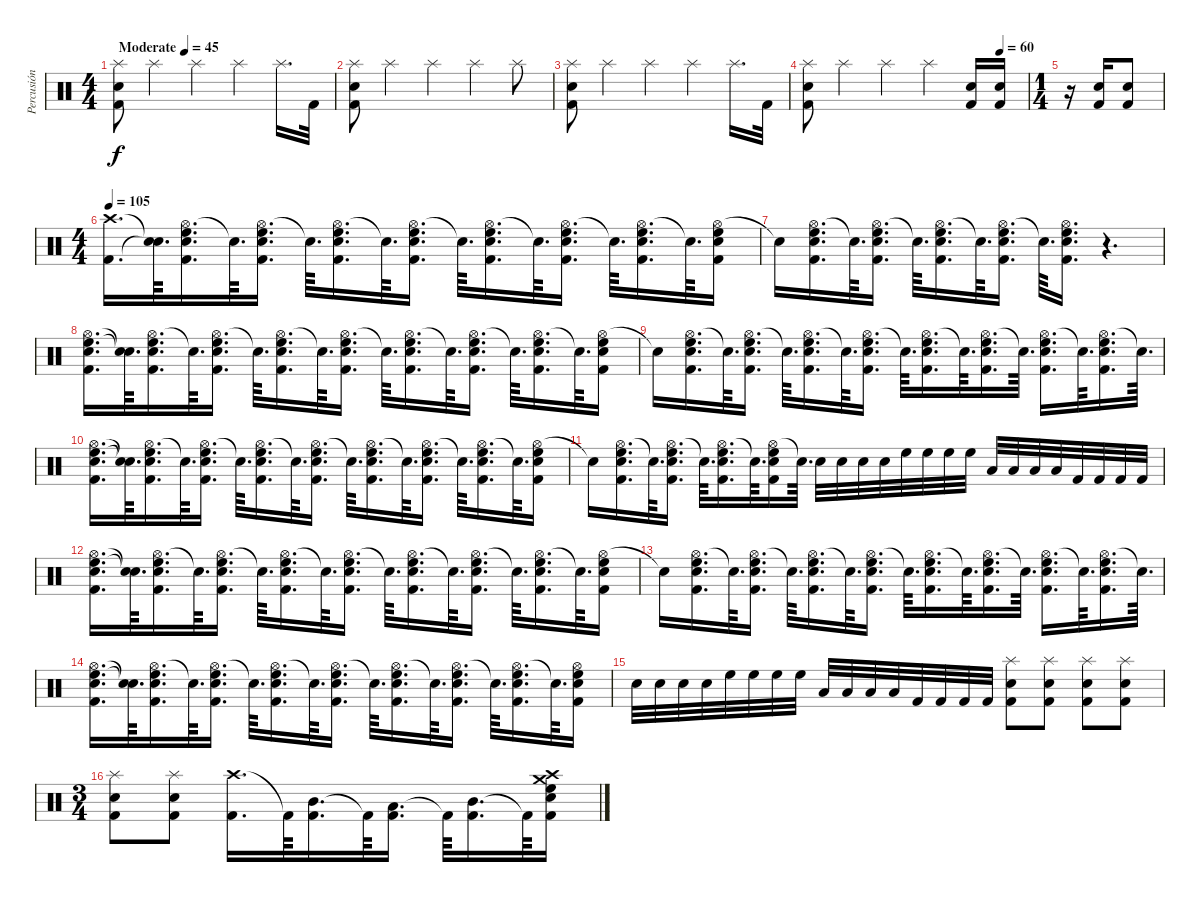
\track ("Percusión" "Percusión") {instrument percussion}
\staff {score}
\articulation defaults
\ts (4 4)
\tempo (45 "Moderate")
\clef neutral
\ks c
("Splash (hit)" "Snare (hit) 2" "Kick (hit) 2").8{dy f} "Splash (hit)".4 "Splash (hit)".4 "Splash (hit)".4 "Splash (hit)".16{d} "Kick (hit) 2".32 |
("Splash (hit)" "Snare (hit) 2" "Kick (hit) 2").8 "Splash (hit)".4 "Splash (hit)".4 "Splash (hit)".4 "Splash (hit)".8 |
("Splash (hit)" "Snare (hit) 2" "Kick (hit) 2").8 "Splash (hit)".4 "Splash (hit)".4 "Splash (hit)".4 "Splash (hit)".16{d} "Kick (hit) 2".32 |
\tempo (65 0.875)
\tempo (60 0.875)
("Splash (hit)" "Snare (hit) 2" "Kick (hit) 2").8 "Splash (hit)".4 "Splash (hit)".4 "Splash (hit)".4 ("Snare (hit) 2" "Kick (hit) 2").16 ("Snare (hit) 2" "Kick (hit) 2").16 |
\ts (1 4)
r.16 ("Snare (hit) 2" "Kick (hit) 2").16 ("Snare (hit) 2" "Kick (hit) 2").8 |
\ts (4 4)
\tempo 105
("Crash high (hit)" "Kick (hit) 2").16{d} ("Snare (hit)"{t} "Snare (hit)"{t}).64{d} ("Hi-Hat (open)" "High Floor Tom (hit)" "Snare (hit) 2" "Kick (hit) 2").16{d} "Snare (hit)"{t}.64{d} ("Hi-Hat (open)" "High Floor Tom (hit)" "Snare (hit) 2" "Kick (hit) 2").16{d} "Snare (hit)"{t}.64{d} ("Hi-Hat (open)" "High Floor Tom (hit)" "Snare (hit) 2" "Kick (hit) 2").16{d} "Snare (hit)"{t}.64{d} ("Hi-Hat (open)" "High Floor Tom (hit)" "Snare (hit) 2" "Kick (hit) 2").16{d} "Snare (hit)"{t}.64{d} ("Hi-Hat (open)" "High Floor Tom (hit)" "Snare (hit) 2" "Kick (hit) 2").16{d} "Snare (hit)"{t}.64{d} ("Hi-Hat (open)" "High Floor Tom (hit)" "Snare (hit) 2" "Kick (hit) 2").16{d} "Snare (hit)"{t}.64{d} ("Hi-Hat (open)" "High Floor Tom (hit)" "Snare (hit) 2" "Kick (hit) 2").16{d} "Snare (hit)"{t}.64{d} ("Hi-Hat (open)" "High Floor Tom (hit)" "Snare (hit) 2" "Kick (hit) 2").16 |
"Snare (hit)"{t}.16 ("Hi-Hat (open)" "High Floor Tom (hit)" "Snare (hit) 2" "Kick (hit) 2").16{d} "Snare (hit)"{t}.64{d} ("Hi-Hat (open)" "High Floor Tom (hit)" "Snare (hit) 2" "Kick (hit) 2").16{d} "Snare (hit)"{t}.64{d} ("Hi-Hat (open)" "High Floor Tom (hit)" "Snare (hit) 2" "Kick (hit) 2").16{d} "Snare (hit)"{t}.64{d} ("Hi-Hat (open)" "High Floor Tom (hit)" "Snare (hit) 2" "Kick (hit) 2").16{d} "Snare (hit)"{t}.64{d} ("Hi-Hat (open)" "High Floor Tom (hit)" "Snare (hit) 2" "Kick (hit) 2").16{d} r.4{d} |
("Hi-Hat (open)" "High Floor Tom (hit)" "Snare (hit) 2" "Kick (hit) 2").16{d} ("Snare (hit)"{t} "Snare (hit)"{t}).64{d} ("Hi-Hat (open)" "High Floor Tom (hit)" "Snare (hit) 2" "Kick (hit) 2").16{d} "Snare (hit)"{t}.64{d} ("Hi-Hat (open)" "High Floor Tom (hit)" "Snare (hit) 2" "Kick (hit) 2").16{d} "Snare (hit)"{t}.64{d} ("Hi-Hat (open)" "High Floor Tom (hit)" "Snare (hit) 2" "Kick (hit) 2").16{d} "Snare (hit)"{t}.64{d} ("Hi-Hat (open)" "High Floor Tom (hit)" "Snare (hit) 2" "Kick (hit) 2").16{d} "Snare (hit)"{t}.64{d} ("Hi-Hat (open)" "High Floor Tom (hit)" "Snare (hit) 2" "Kick (hit) 2").16{d} "Snare (hit)"{t}.64{d} ("Hi-Hat (open)" "High Floor Tom (hit)" "Snare (hit) 2" "Kick (hit) 2").16{d} "Snare (hit)"{t}.64{d} ("Hi-Hat (open)" "High Floor Tom (hit)" "Snare (hit) 2" "Kick (hit) 2").16{d} "Snare (hit)"{t}.64{d} ("Hi-Hat (open)" "High Floor Tom (hit)" "Snare (hit) 2" "Kick (hit) 2").16 |
"Snare (hit)"{t}.16 ("Hi-Hat (open)" "High Floor Tom (hit)" "Snare (hit) 2" "Kick (hit) 2").16{d} "Snare (hit)"{t}.64{d} ("Hi-Hat (open)" "High Floor Tom (hit)" "Snare (hit) 2" "Kick (hit) 2").16{d} "Snare (hit)"{t}.64{d} ("Hi-Hat (open)" "High Floor Tom (hit)" "Snare (hit) 2" "Kick (hit) 2").16{d} "Snare (hit)"{t}.64{d} ("Hi-Hat (open)" "High Floor Tom (hit)" "Snare (hit) 2" "Kick (hit) 2").16{d} "Snare (hit)"{t}.64{d} ("Hi-Hat (open)" "High Floor Tom (hit)" "Snare (hit) 2" "Kick (hit) 2").16{d} "Snare (hit)"{t}.64{d} ("Hi-Hat (open)" "High Floor Tom (hit)" "Snare (hit) 2" "Kick (hit) 2").16{d} "Snare (hit)"{t}.64{d} ("Hi-Hat (open)" "High Floor Tom (hit)" "Snare (hit) 2" "Kick (hit) 2").16{d} "Snare (hit)"{t}.64{d} ("Hi-Hat (open)" "High Floor Tom (hit)" "Snare (hit) 2" "Kick (hit) 2").16{d} "Snare (hit)"{t}.64{d} |
("Hi-Hat (open)" "High Floor Tom (hit)" "Snare (hit) 2" "Kick (hit) 2").16{d} ("Snare (hit)"{t} "Snare (hit)"{t}).64{d} ("Hi-Hat (open)" "High Floor Tom (hit)" "Snare (hit) 2" "Kick (hit) 2").16{d} "Snare (hit)"{t}.64{d} ("Hi-Hat (open)" "High Floor Tom (hit)" "Snare (hit) 2" "Kick (hit) 2").16{d} "Snare (hit)"{t}.64{d} ("Hi-Hat (open)" "High Floor Tom (hit)" "Snare (hit) 2" "Kick (hit) 2").16{d} "Snare (hit)"{t}.64{d} ("Hi-Hat (open)" "High Floor Tom (hit)" "Snare (hit) 2" "Kick (hit) 2").16{d} "Snare (hit)"{t}.64{d} ("Hi-Hat (open)" "High Floor Tom (hit)" "Snare (hit) 2" "Kick (hit) 2").16{d} "Snare (hit)"{t}.64{d} ("Hi-Hat (open)" "High Floor Tom (hit)" "Snare (hit) 2" "Kick (hit) 2").16{d} "Snare (hit)"{t}.64{d} ("Hi-Hat (open)" "High Floor Tom (hit)" "Snare (hit) 2" "Kick (hit) 2").16{d} "Snare (hit)"{t}.64{d} ("Hi-Hat (open)" "High Floor Tom (hit)" "Snare (hit) 2" "Kick (hit) 2").16 |
"Snare (hit)"{t}.16 ("Hi-Hat (open)" "High Floor Tom (hit)" "Snare (hit) 2" "Kick (hit) 2").16{d} "Snare (hit)"{t}.64{d} ("Hi-Hat (open)" "High Floor Tom (hit)" "Snare (hit) 2" "Kick (hit) 2").16{d} "Snare (hit)"{t}.64{d} ("Hi-Hat (open)" "High Floor Tom (hit)" "Snare (hit) 2" "Kick (hit) 2").16{d} "Snare (hit)"{t}.64{d} ("Hi-Hat (open)" "High Floor Tom (hit)" "Snare (hit) 2" "Kick (hit) 2").16 "Snare (hit)"{t}.64{d} "Snare (hit) 2".32 "Snare (hit) 2".32 "Snare (hit) 2".32 "Snare (hit) 2".32 "High Floor Tom (hit)".32 "High Floor Tom (hit)".32 "High Floor Tom (hit)".32 "High Floor Tom (hit)".32 "Low Tom (hit)".32 "Low Tom (hit)".32 "Low Tom (hit)".32 "Low Tom (hit)".32 "Kick (hit) 2".32 "Kick (hit) 2".32 "Kick (hit) 2".32 "Kick (hit) 2".32 |
("Hi-Hat (open)" "High Floor Tom (hit)" "Snare (hit) 2" "Kick (hit) 2").16{d} ("Snare (hit)"{t} "Snare (hit)"{t}).64{d} ("Hi-Hat (open)" "High Floor Tom (hit)" "Snare (hit) 2" "Kick (hit) 2").16{d} "Snare (hit)"{t}.64{d} ("Hi-Hat (open)" "High Floor Tom (hit)" "Snare (hit) 2" "Kick (hit) 2").16{d} "Snare (hit)"{t}.64{d} ("Hi-Hat (open)" "High Floor Tom (hit)" "Snare (hit) 2" "Kick (hit) 2").16{d} "Snare (hit)"{t}.64{d} ("Hi-Hat (open)" "High Floor Tom (hit)" "Snare (hit) 2" "Kick (hit) 2").16{d} "Snare (hit)"{t}.64{d} ("Hi-Hat (open)" "High Floor Tom (hit)" "Snare (hit) 2" "Kick (hit) 2").16{d} "Snare (hit)"{t}.64{d} ("Hi-Hat (open)" "High Floor Tom (hit)" "Snare (hit) 2" "Kick (hit) 2").16{d} "Snare (hit)"{t}.64{d} ("Hi-Hat (open)" "High Floor Tom (hit)" "Snare (hit) 2" "Kick (hit) 2").16{d} "Snare (hit)"{t}.64{d} ("Hi-Hat (open)" "High Floor Tom (hit)" "Snare (hit) 2" "Kick (hit) 2").16 |
"Snare (hit)"{t}.16 ("Hi-Hat (open)" "High Floor Tom (hit)" "Snare (hit) 2" "Kick (hit) 2").16{d} "Snare (hit)"{t}.64{d} ("Hi-Hat (open)" "High Floor Tom (hit)" "Snare (hit) 2" "Kick (hit) 2").16{d} "Snare (hit)"{t}.64{d} ("Hi-Hat (open)" "High Floor Tom (hit)" "Snare (hit) 2" "Kick (hit) 2").16{d} "Snare (hit)"{t}.64{d} ("Hi-Hat (open)" "High Floor Tom (hit)" "Snare (hit) 2" "Kick (hit) 2").16{d} "Snare (hit)"{t}.64{d} ("Hi-Hat (open)" "High Floor Tom (hit)" "Snare (hit) 2" "Kick (hit) 2").16{d} "Snare (hit)"{t}.64{d} ("Hi-Hat (open)" "High Floor Tom (hit)" "Snare (hit) 2" "Kick (hit) 2").16{d} "Snare (hit)"{t}.64{d} ("Hi-Hat (open)" "High Floor Tom (hit)" "Snare (hit) 2" "Kick (hit) 2").16{d} "Snare (hit)"{t}.64{d} ("Hi-Hat (open)" "High Floor Tom (hit)" "Snare (hit) 2" "Kick (hit) 2").16{d} "Snare (hit)"{t}.64{d} |
("Hi-Hat (open)" "High Floor Tom (hit)" "Snare (hit) 2" "Kick (hit) 2").16{d} ("Snare (hit)"{t} "Snare (hit)"{t}).64{d} ("Hi-Hat (open)" "High Floor Tom (hit)" "Snare (hit) 2" "Kick (hit) 2").16{d} "Snare (hit)"{t}.64{d} ("Hi-Hat (open)" "High Floor Tom (hit)" "Snare (hit) 2" "Kick (hit) 2").16{d} "Snare (hit)"{t}.64{d} ("Hi-Hat (open)" "High Floor Tom (hit)" "Snare (hit) 2" "Kick (hit) 2").16{d} "Snare (hit)"{t}.64{d} ("Hi-Hat (open)" "High Floor Tom (hit)" "Snare (hit) 2" "Kick (hit) 2").16{d} "Snare (hit)"{t}.64{d} ("Hi-Hat (open)" "High Floor Tom (hit)" "Snare (hit) 2" "Kick (hit) 2").16{d} "Snare (hit)"{t}.64{d} ("Hi-Hat (open)" "High Floor Tom (hit)" "Snare (hit) 2" "Kick (hit) 2").16{d} "Snare (hit)"{t}.64{d} ("Hi-Hat (open)" "High Floor Tom (hit)" "Snare (hit) 2" "Kick (hit) 2").16{d} "Snare (hit)"{t}.64{d} ("Hi-Hat (open)" "High Floor Tom (hit)" "Snare (hit) 2" "Kick (hit) 2").16 |
"Snare (hit) 2".32 "Snare (hit) 2".32 "Snare (hit) 2".32 "Snare (hit) 2".32 "High Floor Tom (hit)".32 "High Floor Tom (hit)".32 "High Floor Tom (hit)".32 "High Floor Tom (hit)".32 "Low Tom (hit)".32 "Low Tom (hit)".32 "Low Tom (hit)".32 "Low Tom (hit)".32 "Kick (hit) 2".32 "Kick (hit) 2".32 "Kick (hit) 2".32 "Kick (hit) 2".32 ("Splash (hit)" "Snare (hit) 2" "Kick (hit) 2").8 ("Splash (hit)" "Snare (hit) 2" "Kick (hit) 2").8 ("Splash (hit)" "Snare (hit) 2" "Kick (hit) 2").8 ("Splash (hit)" "Snare (hit) 2" "Kick (hit) 2").8 |
\ts (3 4)
("Splash (hit)" "Snare (hit) 2" "Kick (hit) 2").8 ("Splash (hit)" "Snare (hit) 2" "Kick (hit) 2").8 ("Crash high (hit)" "Kick (hit) 2").16{d} "Kick (hit) 2"{t}.64 ("Mid Tom (hit)" "Kick (hit) 2").16{d} "Kick (hit) 2"{t}.64 ("Low Tom (hit)" "Kick (hit) 2").16{d} "Kick (hit) 2"{t}.64 ("Mid Tom (hit)" "Kick (hit) 2").16{d} "Kick (hit) 2"{t}.64 ("Crash medium (hit)" "Crash high (hit)" "High Floor Tom (hit)" "Snare (hit) 2" "Kick (hit) 2").16
